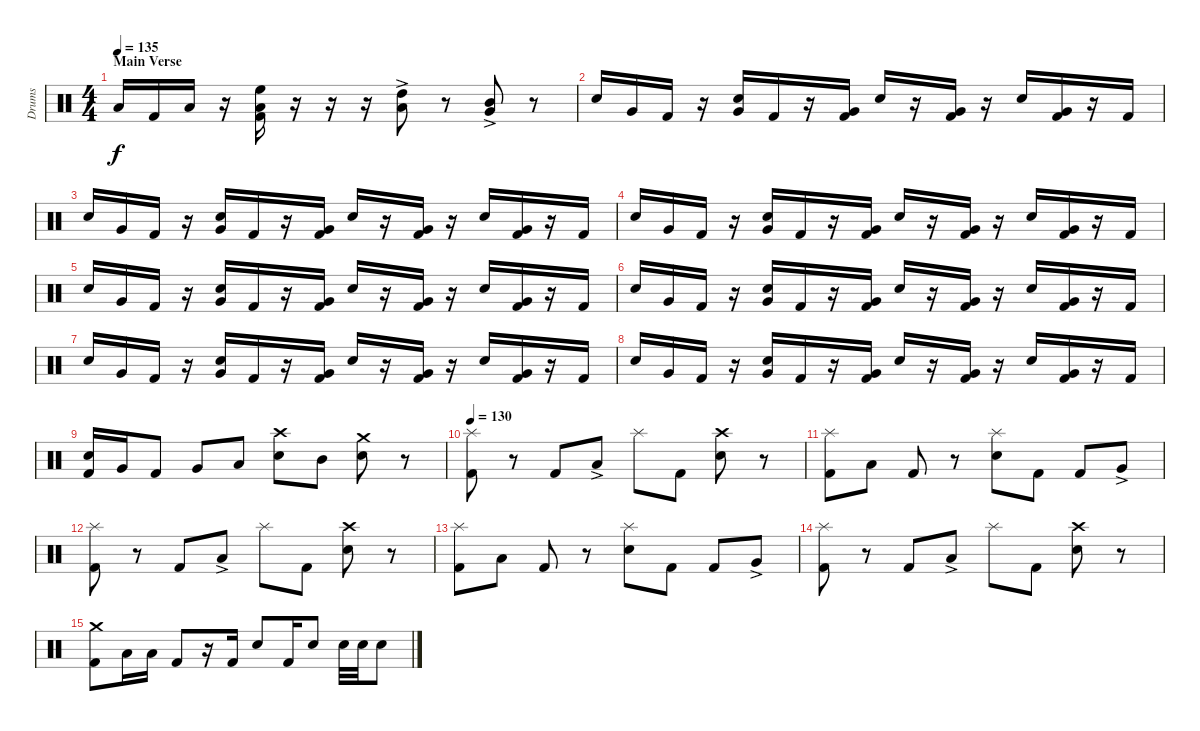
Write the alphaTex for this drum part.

\track ("Drums" "Drums") {instrument percussion}
\staff {score}
\articulation defaults
\ts (4 4)
\section ("" "Main Verse")
\tempo 135
\clef neutral
\ks c "Low Tom (hit)".16{dy f} "Kick (hit) 2".16 "Low Tom (hit)".16
r.16 ("High Floor Tom (hit)" "Low Tom (hit)" "Kick (hit) 2").16 r.16 r.16 r.16 ("High Tom (hit)" "Low Tom (hit)"{ac}).8 r.8 ("Mid Tom (hit)"{ac} "Very Low Tom (hit)"{ac}).8 r.8 |
"Electric Snare (hit)".16 "Very Low Tom (hit)".16 "Kick (hit) 2".16 r.16 ("Electric Snare (hit)" "Very Low Tom (hit)").16 "Kick (hit) 2".16 r.16 ("Very Low Tom (hit)" "Kick (hit) 2").16 "Electric Snare (hit)".16 r.16 ("Very Low Tom (hit)" "Kick (hit) 2").16 r.16 "Electric Snare (hit)".16 ("Very Low Tom (hit)" "Kick (hit) 2").16 r.16 "Kick (hit) 2".16 |
"Electric Snare (hit)".16 "Very Low Tom (hit)".16 "Kick (hit) 2".16 r.16 ("Electric Snare (hit)" "Very Low Tom (hit)").16 "Kick (hit) 2".16 r.16 ("Very Low Tom (hit)" "Kick (hit) 2").16 "Electric Snare (hit)".16 r.16 ("Very Low Tom (hit)" "Kick (hit) 2").16 r.16 "Electric Snare (hit)".16 ("Very Low Tom (hit)" "Kick (hit) 2").16 r.16 "Kick (hit) 2".16 |
"Electric Snare (hit)".16 "Very Low Tom (hit)".16 "Kick (hit) 2".16 r.16 ("Electric Snare (hit)" "Very Low Tom (hit)").16 "Kick (hit) 2".16 r.16 ("Very Low Tom (hit)" "Kick (hit) 2").16 "Electric Snare (hit)".16 r.16 ("Very Low Tom (hit)" "Kick (hit) 2").16 r.16 "Electric Snare (hit)".16 ("Very Low Tom (hit)" "Kick (hit) 2").16 r.16 "Kick (hit) 2".16 |
"Electric Snare (hit)".16 "Very Low Tom (hit)".16 "Kick (hit) 2".16 r.16 ("Electric Snare (hit)" "Very Low Tom (hit)").16 "Kick (hit) 2".16 r.16 ("Very Low Tom (hit)" "Kick (hit) 2").16 "Electric Snare (hit)".16 r.16 ("Very Low Tom (hit)" "Kick (hit) 2").16 r.16 "Electric Snare (hit)".16 ("Very Low Tom (hit)" "Kick (hit) 2").16 r.16 "Kick (hit) 2".16 |
"Electric Snare (hit)".16 "Very Low Tom (hit)".16 "Kick (hit) 2".16 r.16 ("Electric Snare (hit)" "Very Low Tom (hit)").16 "Kick (hit) 2".16 r.16 ("Very Low Tom (hit)" "Kick (hit) 2").16 "Electric Snare (hit)".16 r.16 ("Very Low Tom (hit)" "Kick (hit) 2").16 r.16 "Electric Snare (hit)".16 ("Very Low Tom (hit)" "Kick (hit) 2").16 r.16 "Kick (hit) 2".16 |
"Electric Snare (hit)".16 "Very Low Tom (hit)".16 "Kick (hit) 2".16 r.16 ("Electric Snare (hit)" "Very Low Tom (hit)").16 "Kick (hit) 2".16 r.16 ("Very Low Tom (hit)" "Kick (hit) 2").16 "Electric Snare (hit)".16 r.16 ("Very Low Tom (hit)" "Kick (hit) 2").16 r.16 "Electric Snare (hit)".16 ("Very Low Tom (hit)" "Kick (hit) 2").16 r.16 "Kick (hit) 2".16 |
"Electric Snare (hit)".16 "Very Low Tom (hit)".16 "Kick (hit) 2".16 r.16 ("Electric Snare (hit)" "Very Low Tom (hit)").16 "Kick (hit) 2".16 r.16 ("Very Low Tom (hit)" "Kick (hit) 2").16 "Electric Snare (hit)".16 r.16 ("Very Low Tom (hit)" "Kick (hit) 2").16 r.16 "Electric Snare (hit)".16 ("Very Low Tom (hit)" "Kick (hit) 2").16 r.16 "Kick (hit) 2".16 |
("Electric Snare (hit)" "Kick (hit) 2").16 "Very Low Tom (hit)".16 "Kick (hit) 2".8 "Very Low Tom (hit)".8 "Low Tom (hit)".8 ("Crash high (hit)" "Electric Snare (hit)").8 "Mid Tom (hit)".8 ("Crash medium (hit)" "Electric Snare (hit)").8 r.8 |
\tempo 130
("Splash (hit)" "Kick (hit) 2").8 r.8 "Kick (hit) 2".8 "Low Tom (hit)"{ac}.8 "Splash (hit)".8 "Kick (hit) 2".8 ("Crash high (hit)" "Electric Snare (hit)").8 r.8 |
("Splash (hit)" "Kick (hit) 2").8 "Low Tom (hit)".8 "Kick (hit) 2".8 r.8 ("Splash (hit)" "Electric Snare (hit)").8 "Kick (hit) 2".8 "Kick (hit) 2".8 "Very Low Tom (hit)"{ac}.8 |
("Splash (hit)" "Kick (hit) 2").8 r.8 "Kick (hit) 2".8 "Low Tom (hit)"{ac}.8 "Splash (hit)".8 "Kick (hit) 2".8 ("Crash high (hit)" "Electric Snare (hit)").8 r.8 |
("Splash (hit)" "Kick (hit) 2").8 "Low Tom (hit)".8 "Kick (hit) 2".8 r.8 ("Splash (hit)" "Electric Snare (hit)").8 "Kick (hit) 2".8 "Kick (hit) 2".8 "Very Low Tom (hit)"{ac}.8 |
("Splash (hit)" "Kick (hit) 2").8 r.8 "Kick (hit) 2".8 "Low Tom (hit)"{ac}.8 "Splash (hit)".8 "Kick (hit) 2".8 ("Crash high (hit)" "Electric Snare (hit)").8 r.8 |
("Crash medium (hit)" "Kick (hit) 2").8 "Low Tom (hit)".16 "Low Tom (hit)".16 "Kick (hit) 2".8 r.16 "Kick (hit) 2".16 "Electric Snare (hit)".8 "Kick (hit) 2".16 "Electric Snare (hit)".8 "Electric Snare (hit)".32 "Electric Snare (hit)".32 "Electric Snare (hit)".8
